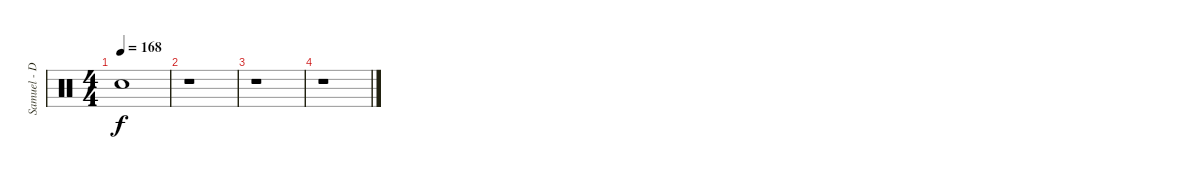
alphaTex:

\track ("Samuel - Drums" "Samuel - D") {instrument percussion}
\staff {score}
\articulation defaults
\ts (4 4)
\tempo 168
\clef neutral
\ks c "Snare (hit)"{t}.1{dy f}
|
r.1 |
r.1 |
r.1
